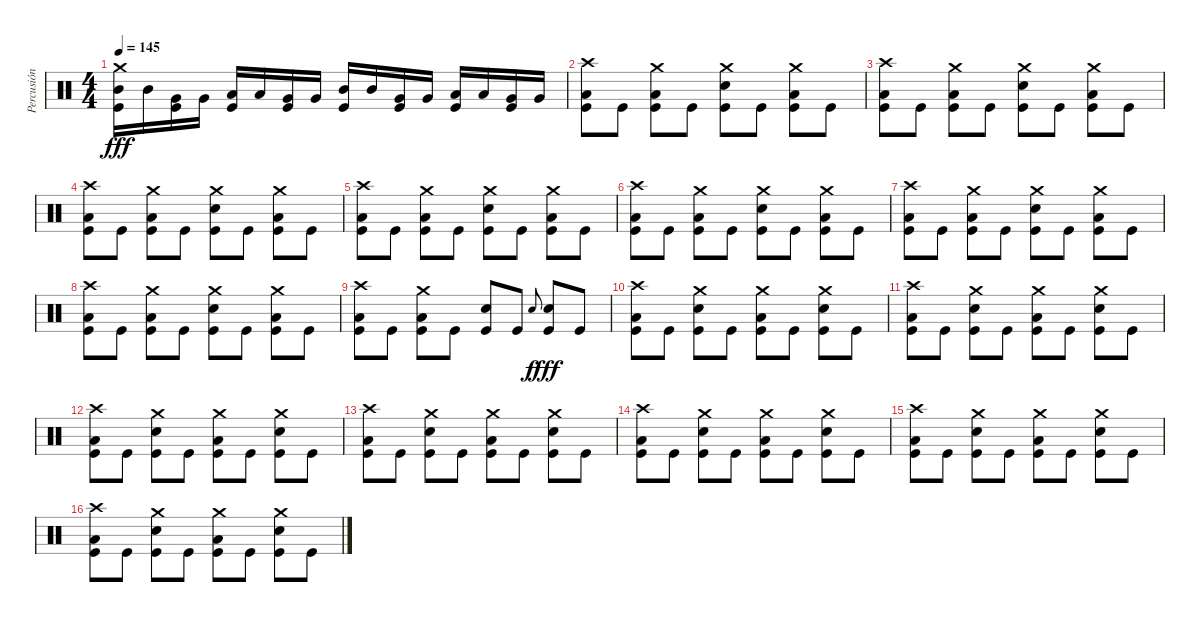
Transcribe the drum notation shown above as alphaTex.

\track ("Percusión" "Percusión") {instrument percussion}
\staff {score}
\articulation defaults
\ts (4 4)
\tempo 145
\clef neutral
\ks c
("Crash medium (hit)" "Mid Tom (hit)" "Kick (hit)").16{dy fff} "Mid Tom (hit)".16 ("Very Low Tom (hit)" "Kick (hit)").16 "Very Low Tom (hit)".16 ("Low Floor Tom (hit)" "Kick (hit)").16 "Low Floor Tom (hit)".16 ("Very Low Tom (hit)" "Kick (hit)").16 "Very Low Tom (hit)".16 ("Mid Tom (hit)" "Kick (hit)").16 "Mid Tom (hit)".16 ("Very Low Tom (hit)" "Kick (hit)").16 "Very Low Tom (hit)".16 ("Low Floor Tom (hit)" "Kick (hit)").16 "Low Floor Tom (hit)".16 ("Very Low Tom (hit)" "Kick (hit)").16 "Very Low Tom (hit)".16 |
("Crash high (hit)" "Low Floor Tom (hit)" "Kick (hit)").8 "Kick (hit)".8 ("Crash medium (hit)" "Low Floor Tom (hit)" "Kick (hit)").8 "Kick (hit)".8 ("Crash medium (hit)" "Snare (hit) 2" "Kick (hit)").8 "Kick (hit)".8 ("Crash medium (hit)" "Low Floor Tom (hit)" "Kick (hit)").8 "Kick (hit)".8 |
("Crash high (hit)" "Low Floor Tom (hit)" "Kick (hit)").8 "Kick (hit)".8 ("Crash medium (hit)" "Low Floor Tom (hit)" "Kick (hit)").8 "Kick (hit)".8 ("Crash medium (hit)" "Snare (hit) 2" "Kick (hit)").8 "Kick (hit)".8 ("Crash medium (hit)" "Low Floor Tom (hit)" "Kick (hit)").8 "Kick (hit)".8 |
("Crash high (hit)" "Low Floor Tom (hit)" "Kick (hit)").8 "Kick (hit)".8 ("Crash medium (hit)" "Low Floor Tom (hit)" "Kick (hit)").8 "Kick (hit)".8 ("Crash medium (hit)" "Snare (hit) 2" "Kick (hit)").8 "Kick (hit)".8 ("Crash medium (hit)" "Low Floor Tom (hit)" "Kick (hit)").8 "Kick (hit)".8 |
("Crash high (hit)" "Low Floor Tom (hit)" "Kick (hit)").8 "Kick (hit)".8 ("Crash medium (hit)" "Low Floor Tom (hit)" "Kick (hit)").8 "Kick (hit)".8 ("Crash medium (hit)" "Snare (hit) 2" "Kick (hit)").8 "Kick (hit)".8 ("Crash medium (hit)" "Low Floor Tom (hit)" "Kick (hit)").8 "Kick (hit)".8 |
("Crash high (hit)" "Low Floor Tom (hit)" "Kick (hit)").8 "Kick (hit)".8 ("Crash medium (hit)" "Low Floor Tom (hit)" "Kick (hit)").8 "Kick (hit)".8 ("Crash medium (hit)" "Snare (hit) 2" "Kick (hit)").8 "Kick (hit)".8 ("Crash medium (hit)" "Low Floor Tom (hit)" "Kick (hit)").8 "Kick (hit)".8 |
("Crash high (hit)" "Low Floor Tom (hit)" "Kick (hit)").8 "Kick (hit)".8 ("Crash medium (hit)" "Low Floor Tom (hit)" "Kick (hit)").8 "Kick (hit)".8 ("Crash medium (hit)" "Snare (hit) 2" "Kick (hit)").8 "Kick (hit)".8 ("Crash medium (hit)" "Low Floor Tom (hit)" "Kick (hit)").8 "Kick (hit)".8 |
("Crash high (hit)" "Low Floor Tom (hit)" "Kick (hit)").8 "Kick (hit)".8 ("Crash medium (hit)" "Low Floor Tom (hit)" "Kick (hit)").8 "Kick (hit)".8 ("Crash medium (hit)" "Snare (hit) 2" "Kick (hit)").8 "Kick (hit)".8 ("Crash medium (hit)" "Low Floor Tom (hit)" "Kick (hit)").8 "Kick (hit)".8 |
("Crash high (hit)" "Low Floor Tom (hit)" "Kick (hit)").8 "Kick (hit)".8 ("Crash medium (hit)" "Low Floor Tom (hit)" "Kick (hit)").8 "Kick (hit)".8 ("Snare (hit) 2" "Kick (hit)").8 "Kick (hit)".8 "Snare (hit) 2".8{gr onbeat dy f} ("Snare (hit) 2" "Kick (hit)").8{dy fff} "Kick (hit)".8 |
("Crash high (hit)" "Low Floor Tom (hit)" "Kick (hit)").8 "Kick (hit)".8 ("Crash medium (hit)" "Snare (hit) 2" "Kick (hit)").8 "Kick (hit)".8 ("Crash medium (hit)" "Low Floor Tom (hit)" "Kick (hit)").8 "Kick (hit)".8 ("Crash medium (hit)" "Snare (hit) 2" "Kick (hit)").8 "Kick (hit)".8 |
("Crash high (hit)" "Low Floor Tom (hit)" "Kick (hit)").8 "Kick (hit)".8 ("Crash medium (hit)" "Snare (hit) 2" "Kick (hit)").8 "Kick (hit)".8 ("Crash medium (hit)" "Low Floor Tom (hit)" "Kick (hit)").8 "Kick (hit)".8 ("Crash medium (hit)" "Snare (hit) 2" "Kick (hit)").8 "Kick (hit)".8 |
("Crash high (hit)" "Low Floor Tom (hit)" "Kick (hit)").8 "Kick (hit)".8 ("Crash medium (hit)" "Snare (hit) 2" "Kick (hit)").8 "Kick (hit)".8 ("Crash medium (hit)" "Low Floor Tom (hit)" "Kick (hit)").8 "Kick (hit)".8 ("Crash medium (hit)" "Snare (hit) 2" "Kick (hit)").8 "Kick (hit)".8 |
("Crash high (hit)" "Low Floor Tom (hit)" "Kick (hit)").8 "Kick (hit)".8 ("Crash medium (hit)" "Snare (hit) 2" "Kick (hit)").8 "Kick (hit)".8 ("Crash medium (hit)" "Low Floor Tom (hit)" "Kick (hit)").8 "Kick (hit)".8 ("Crash medium (hit)" "Snare (hit) 2" "Kick (hit)").8 "Kick (hit)".8 |
("Crash high (hit)" "Low Floor Tom (hit)" "Kick (hit)").8 "Kick (hit)".8 ("Crash medium (hit)" "Snare (hit) 2" "Kick (hit)").8 "Kick (hit)".8 ("Crash medium (hit)" "Low Floor Tom (hit)" "Kick (hit)").8 "Kick (hit)".8 ("Crash medium (hit)" "Snare (hit) 2" "Kick (hit)").8 "Kick (hit)".8 |
("Crash high (hit)" "Low Floor Tom (hit)" "Kick (hit)").8 "Kick (hit)".8 ("Crash medium (hit)" "Snare (hit) 2" "Kick (hit)").8 "Kick (hit)".8 ("Crash medium (hit)" "Low Floor Tom (hit)" "Kick (hit)").8 "Kick (hit)".8 ("Crash medium (hit)" "Snare (hit) 2" "Kick (hit)").8 "Kick (hit)".8 |
("Crash high (hit)" "Low Floor Tom (hit)" "Kick (hit)").8 "Kick (hit)".8 ("Crash medium (hit)" "Snare (hit) 2" "Kick (hit)").8 "Kick (hit)".8 ("Crash medium (hit)" "Low Floor Tom (hit)" "Kick (hit)").8 "Kick (hit)".8 ("Crash medium (hit)" "Snare (hit) 2" "Kick (hit)").8 "Kick (hit)".8
